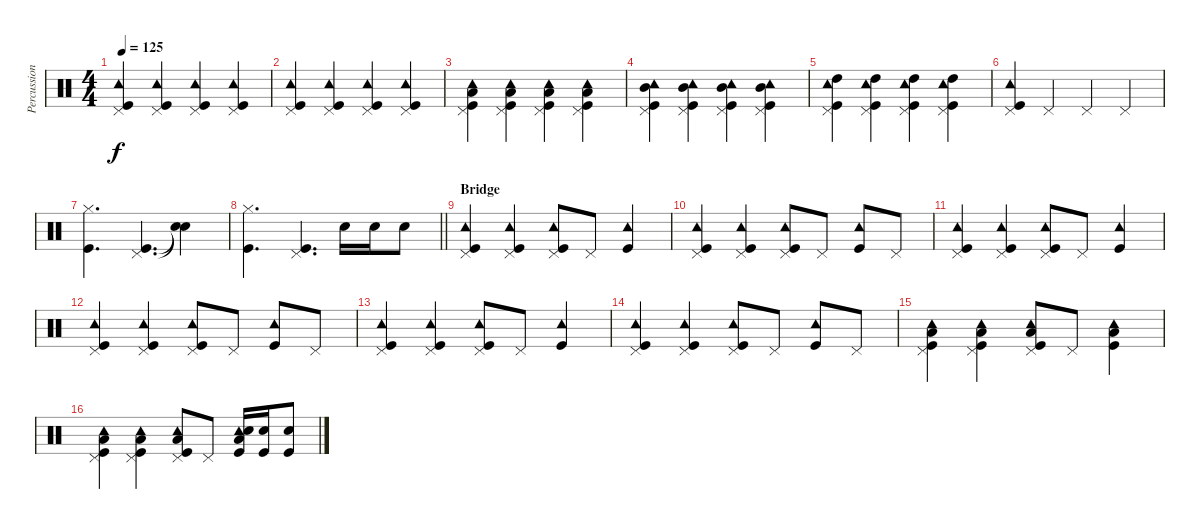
\track ("Percussions" "Percussion") {instrument percussion}
\staff {score}
\articulation defaults
\ts (4 4)
\tempo 125
\clef neutral
\ks c
("Tambourine (hit)" "Pedal Hi-Hat (hit)" "Kick (hit)").4{dy f} ("Tambourine (hit)" "Pedal Hi-Hat (hit)" "Kick (hit)").4 ("Tambourine (hit)" "Pedal Hi-Hat (hit)" "Kick (hit)").4 ("Tambourine (hit)" "Pedal Hi-Hat (hit)" "Kick (hit)").4 |
("Tambourine (hit)" "Pedal Hi-Hat (hit)" "Kick (hit)").4 ("Tambourine (hit)" "Pedal Hi-Hat (hit)" "Kick (hit)").4 ("Tambourine (hit)" "Pedal Hi-Hat (hit)" "Kick (hit)").4 ("Tambourine (hit)" "Pedal Hi-Hat (hit)" "Kick (hit)").4 |
("Tambourine (hit)" "Pedal Hi-Hat (hit)" "Low Tom (hit)" "Kick (hit)").4 ("Tambourine (hit)" "Pedal Hi-Hat (hit)" "Low Tom (hit)" "Kick (hit)").4 ("Tambourine (hit)" "Pedal Hi-Hat (hit)" "Low Tom (hit)" "Kick (hit)").4 ("Tambourine (hit)" "Pedal Hi-Hat (hit)" "Low Tom (hit)" "Kick (hit)").4 |
("Tambourine (hit)" "Pedal Hi-Hat (hit)" "Mid Tom (hit)" "Kick (hit)").4 ("Tambourine (hit)" "Pedal Hi-Hat (hit)" "Mid Tom (hit)" "Kick (hit)").4 ("Tambourine (hit)" "Pedal Hi-Hat (hit)" "Mid Tom (hit)" "Kick (hit)").4 ("Tambourine (hit)" "Pedal Hi-Hat (hit)" "Mid Tom (hit)" "Kick (hit)").4 |
("Tambourine (hit)" "Pedal Hi-Hat (hit)" "High Tom (hit)" "Kick (hit)").4 ("Tambourine (hit)" "Pedal Hi-Hat (hit)" "High Tom (hit)" "Kick (hit)").4 ("Tambourine (hit)" "Pedal Hi-Hat (hit)" "High Tom (hit)" "Kick (hit)").4 ("Tambourine (hit)" "Pedal Hi-Hat (hit)" "High Tom (hit)" "Kick (hit)").4 |
("Tambourine (hit)" "Pedal Hi-Hat (hit)" "Kick (hit)").4 "Pedal Hi-Hat (hit)".4 "Pedal Hi-Hat (hit)".4 "Pedal Hi-Hat (hit)".4 |
("Hi-Hat (closed)" "Kick (hit)").4{d} ("Pedal Hi-Hat (hit)" "Kick (hit)").4{d} ("Snare (hit)"{t} "Snare (hit)"{t}).4 |
\barLineRight lightlight
("Hi-Hat (closed)" "Kick (hit)").4{d} ("Pedal Hi-Hat (hit)" "Kick (hit)").4{d} "Snare (hit) 2".16 "Snare (hit) 2".16 "Snare (hit) 2".8 |
\section ("" "Bridge")
("Tambourine (hit)" "Pedal Hi-Hat (hit)" "Kick (hit)").4 ("Tambourine (hit)" "Pedal Hi-Hat (hit)" "Kick (hit)").4 ("Tambourine (hit)" "Pedal Hi-Hat (hit)" "Kick (hit)").8 "Pedal Hi-Hat (hit)".8 ("Tambourine (hit)" "Kick (hit)").4 |
("Tambourine (hit)" "Pedal Hi-Hat (hit)" "Kick (hit)").4 ("Tambourine (hit)" "Pedal Hi-Hat (hit)" "Kick (hit)").4 ("Tambourine (hit)" "Pedal Hi-Hat (hit)" "Kick (hit)").8 "Pedal Hi-Hat (hit)".8 ("Tambourine (hit)" "Kick (hit)").8 "Pedal Hi-Hat (hit)".8 |
("Tambourine (hit)" "Pedal Hi-Hat (hit)" "Kick (hit)").4 ("Tambourine (hit)" "Pedal Hi-Hat (hit)" "Kick (hit)").4 ("Tambourine (hit)" "Pedal Hi-Hat (hit)" "Kick (hit)").8 "Pedal Hi-Hat (hit)".8 ("Tambourine (hit)" "Kick (hit)").4 |
("Tambourine (hit)" "Pedal Hi-Hat (hit)" "Kick (hit)").4 ("Tambourine (hit)" "Pedal Hi-Hat (hit)" "Kick (hit)").4 ("Tambourine (hit)" "Pedal Hi-Hat (hit)" "Kick (hit)").8 "Pedal Hi-Hat (hit)".8 ("Tambourine (hit)" "Kick (hit)").8 "Pedal Hi-Hat (hit)".8 |
("Tambourine (hit)" "Pedal Hi-Hat (hit)" "Kick (hit)").4 ("Tambourine (hit)" "Pedal Hi-Hat (hit)" "Kick (hit)").4 ("Tambourine (hit)" "Pedal Hi-Hat (hit)" "Kick (hit)").8 "Pedal Hi-Hat (hit)".8 ("Tambourine (hit)" "Kick (hit)").4 |
("Tambourine (hit)" "Pedal Hi-Hat (hit)" "Kick (hit)").4 ("Tambourine (hit)" "Pedal Hi-Hat (hit)" "Kick (hit)").4 ("Tambourine (hit)" "Pedal Hi-Hat (hit)" "Kick (hit)").8 "Pedal Hi-Hat (hit)".8 ("Tambourine (hit)" "Kick (hit)").8 "Pedal Hi-Hat (hit)".8 |
("Tambourine (hit)" "Pedal Hi-Hat (hit)" "Low Tom (hit)" "Kick (hit)").4 ("Tambourine (hit)" "Pedal Hi-Hat (hit)" "Low Tom (hit)" "Kick (hit)").4 ("Tambourine (hit)" "Pedal Hi-Hat (hit)" "Low Tom (hit)" "Kick (hit)").8 "Pedal Hi-Hat (hit)".8 ("Tambourine (hit)" "Low Tom (hit)" "Kick (hit)").4 |
("Tambourine (hit)" "Pedal Hi-Hat (hit)" "Low Floor Tom (hit)" "Kick (hit)").4 ("Tambourine (hit)" "Pedal Hi-Hat (hit)" "Low Floor Tom (hit)" "Kick (hit)").4 ("Tambourine (hit)" "Pedal Hi-Hat (hit)" "Low Floor Tom (hit)" "Kick (hit)").8 "Pedal Hi-Hat (hit)".8 ("Tambourine (hit)" "Low Floor Tom (hit)" "Snare (hit) 2" "Kick (hit)").16 ("Snare (hit) 2" "Kick (hit)").16 ("Snare (hit) 2" "Kick (hit)").8
